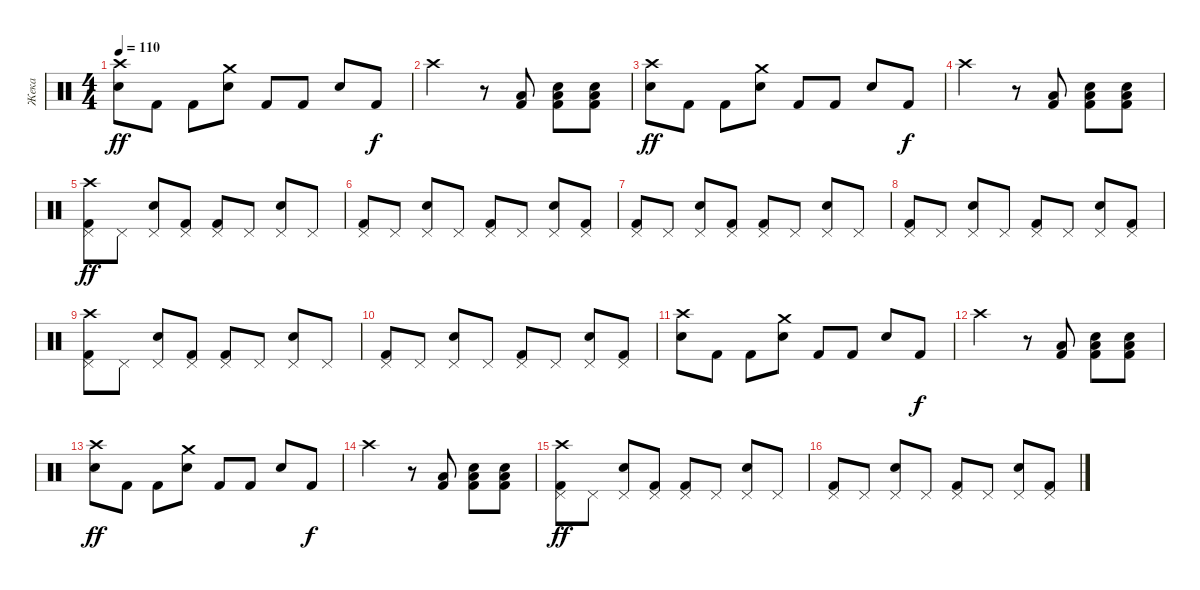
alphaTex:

\track ("Жека" "Жека") {instrument percussion}
\staff {score}
\articulation defaults
\ts (4 4)
\tempo 110
\clef neutral
\ks c
("Snare (hit) 2" "Crash high (hit)").8{dy ff} "Kick (hit) 2".8 "Kick (hit) 2".8 ("Snare (hit) 2" "Crash medium (hit)").8 "Kick (hit) 2".8 "Kick (hit) 2".8 "Snare (hit) 2".8 "Kick (hit) 2".8{dy f} |
"Crash high (hit)".2 r.8 ("Low Floor Tom (hit)" "Kick (hit) 2").8 ("Low Tom (hit)" "Kick (hit) 2" "Snare (hit) 2").8 ("Low Tom (hit)" "Kick (hit) 2" "Snare (hit) 2").8 |
("Snare (hit) 2" "Crash high (hit)").8{dy ff} "Kick (hit) 2".8 "Kick (hit) 2".8 ("Snare (hit) 2" "Crash medium (hit)").8 "Kick (hit) 2".8 "Kick (hit) 2".8 "Snare (hit) 2".8 "Kick (hit) 2".8{dy f} |
"Crash high (hit)".2 r.8 ("Low Floor Tom (hit)" "Kick (hit) 2").8 ("Low Tom (hit)" "Kick (hit) 2" "Snare (hit) 2").8 ("Low Tom (hit)" "Kick (hit) 2" "Snare (hit) 2").8 |
("Pedal Hi-Hat (hit)" "Kick (hit) 2" "Crash high (hit)").8{dy ff} "Pedal Hi-Hat (hit)".8 ("Pedal Hi-Hat (hit)" "Snare (hit) 2").8 ("Pedal Hi-Hat (hit)" "Kick (hit) 2").8 ("Pedal Hi-Hat (hit)" "Kick (hit) 2").8 "Pedal Hi-Hat (hit)".8 ("Pedal Hi-Hat (hit)" "Snare (hit) 2").8 "Pedal Hi-Hat (hit)".8 |
("Pedal Hi-Hat (hit)" "Kick (hit) 2").8 "Pedal Hi-Hat (hit)".8 ("Pedal Hi-Hat (hit)" "Snare (hit) 2").8 "Pedal Hi-Hat (hit)".8 ("Pedal Hi-Hat (hit)" "Kick (hit) 2").8 "Pedal Hi-Hat (hit)".8 ("Pedal Hi-Hat (hit)" "Snare (hit) 2").8 ("Pedal Hi-Hat (hit)" "Kick (hit) 2").8 |
("Pedal Hi-Hat (hit)" "Kick (hit) 2").8 "Pedal Hi-Hat (hit)".8 ("Pedal Hi-Hat (hit)" "Snare (hit) 2").8 ("Pedal Hi-Hat (hit)" "Kick (hit) 2").8 ("Pedal Hi-Hat (hit)" "Kick (hit) 2").8 "Pedal Hi-Hat (hit)".8 ("Pedal Hi-Hat (hit)" "Snare (hit) 2").8 "Pedal Hi-Hat (hit)".8 |
("Pedal Hi-Hat (hit)" "Kick (hit) 2").8 "Pedal Hi-Hat (hit)".8 ("Pedal Hi-Hat (hit)" "Snare (hit) 2").8 "Pedal Hi-Hat (hit)".8 ("Pedal Hi-Hat (hit)" "Kick (hit) 2").8 "Pedal Hi-Hat (hit)".8 ("Pedal Hi-Hat (hit)" "Snare (hit) 2").8 ("Pedal Hi-Hat (hit)" "Kick (hit) 2").8 |
("Pedal Hi-Hat (hit)" "Kick (hit) 2" "Crash high (hit)").8 "Pedal Hi-Hat (hit)".8 ("Pedal Hi-Hat (hit)" "Snare (hit) 2").8 ("Pedal Hi-Hat (hit)" "Kick (hit) 2").8 ("Pedal Hi-Hat (hit)" "Kick (hit) 2").8 "Pedal Hi-Hat (hit)".8 ("Pedal Hi-Hat (hit)" "Snare (hit) 2").8 "Pedal Hi-Hat (hit)".8 |
("Pedal Hi-Hat (hit)" "Kick (hit) 2").8 "Pedal Hi-Hat (hit)".8 ("Pedal Hi-Hat (hit)" "Snare (hit) 2").8 "Pedal Hi-Hat (hit)".8 ("Pedal Hi-Hat (hit)" "Kick (hit) 2").8 "Pedal Hi-Hat (hit)".8 ("Pedal Hi-Hat (hit)" "Snare (hit) 2").8 ("Pedal Hi-Hat (hit)" "Kick (hit) 2").8 |
("Snare (hit) 2" "Crash high (hit)").8 "Kick (hit) 2".8 "Kick (hit) 2".8 ("Snare (hit) 2" "Crash medium (hit)").8 "Kick (hit) 2".8 "Kick (hit) 2".8 "Snare (hit) 2".8 "Kick (hit) 2".8{dy f} |
"Crash high (hit)".2 r.8 ("Low Floor Tom (hit)" "Kick (hit) 2").8 ("Low Tom (hit)" "Kick (hit) 2" "Snare (hit) 2").8 ("Low Tom (hit)" "Kick (hit) 2" "Snare (hit) 2").8 |
("Snare (hit) 2" "Crash high (hit)").8{dy ff} "Kick (hit) 2".8 "Kick (hit) 2".8 ("Snare (hit) 2" "Crash medium (hit)").8 "Kick (hit) 2".8 "Kick (hit) 2".8 "Snare (hit) 2".8 "Kick (hit) 2".8{dy f} |
"Crash high (hit)".2 r.8 ("Low Floor Tom (hit)" "Kick (hit) 2").8 ("Low Tom (hit)" "Kick (hit) 2" "Snare (hit) 2").8 ("Low Tom (hit)" "Kick (hit) 2" "Snare (hit) 2").8 |
("Pedal Hi-Hat (hit)" "Kick (hit) 2" "Crash high (hit)").8{dy ff} "Pedal Hi-Hat (hit)".8 ("Pedal Hi-Hat (hit)" "Snare (hit) 2").8 ("Pedal Hi-Hat (hit)" "Kick (hit) 2").8 ("Pedal Hi-Hat (hit)" "Kick (hit) 2").8 "Pedal Hi-Hat (hit)".8 ("Pedal Hi-Hat (hit)" "Snare (hit) 2").8 "Pedal Hi-Hat (hit)".8 |
("Pedal Hi-Hat (hit)" "Kick (hit) 2").8 "Pedal Hi-Hat (hit)".8 ("Pedal Hi-Hat (hit)" "Snare (hit) 2").8 "Pedal Hi-Hat (hit)".8 ("Pedal Hi-Hat (hit)" "Kick (hit) 2").8 "Pedal Hi-Hat (hit)".8 ("Pedal Hi-Hat (hit)" "Snare (hit) 2").8 ("Pedal Hi-Hat (hit)" "Kick (hit) 2").8
